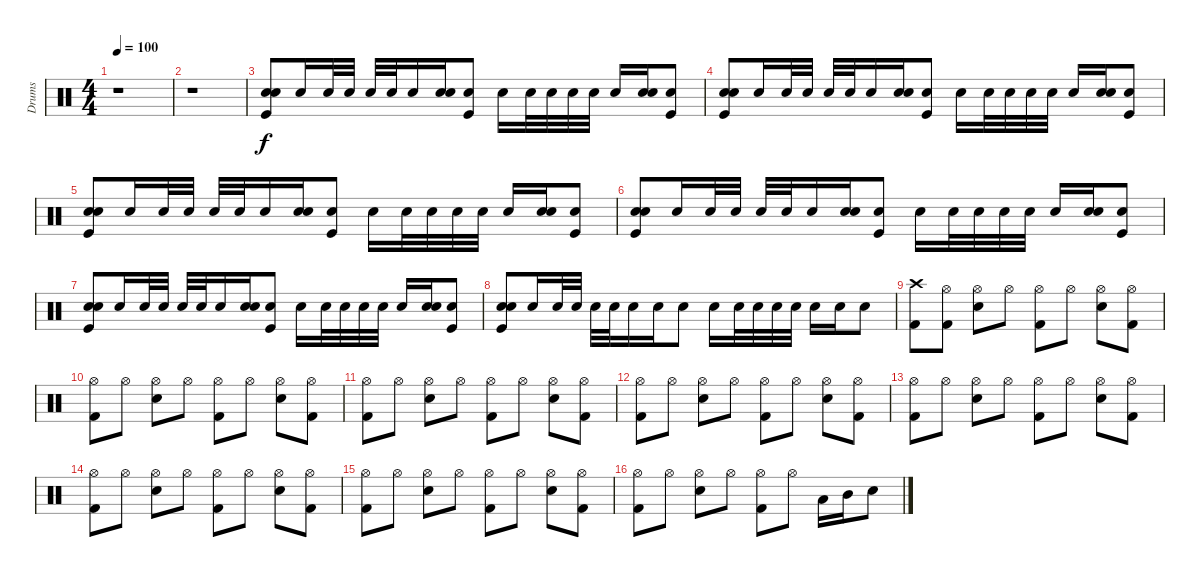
\track ("Drums" "Drums") {instrument percussion}
\staff {score}
\articulation defaults
\ts (4 4)
\tempo 100
\clef neutral
\ks c
r.1{dy f} |
r.1 |
("Electric Snare (hit)" "Electric Snare (hit)" "Kick (hit)").8 "Electric Snare (hit)".16 "Electric Snare (hit)".32 "Electric Snare (hit)".32 "Electric Snare (hit)".32 "Electric Snare (hit)".32 "Electric Snare (hit)".16 ("Electric Snare (hit)" "Electric Snare (hit)").16 ("Electric Snare (hit)" "Kick (hit)").8 "Electric Snare (hit)".16 "Electric Snare (hit)".32 "Electric Snare (hit)".32 "Electric Snare (hit)".32 "Electric Snare (hit)".32 "Electric Snare (hit)".16 ("Electric Snare (hit)" "Electric Snare (hit)").16 ("Electric Snare (hit)" "Kick (hit)").8 |
("Electric Snare (hit)" "Electric Snare (hit)" "Kick (hit)").8 "Electric Snare (hit)".16 "Electric Snare (hit)".32 "Electric Snare (hit)".32 "Electric Snare (hit)".32 "Electric Snare (hit)".32 "Electric Snare (hit)".16 ("Electric Snare (hit)" "Electric Snare (hit)").16 ("Electric Snare (hit)" "Kick (hit)").8 "Electric Snare (hit)".16 "Electric Snare (hit)".32 "Electric Snare (hit)".32 "Electric Snare (hit)".32 "Electric Snare (hit)".32 "Electric Snare (hit)".16 ("Electric Snare (hit)" "Electric Snare (hit)").16 ("Electric Snare (hit)" "Kick (hit)").8 |
("Electric Snare (hit)" "Electric Snare (hit)" "Kick (hit)").8 "Electric Snare (hit)".16 "Electric Snare (hit)".32 "Electric Snare (hit)".32 "Electric Snare (hit)".32 "Electric Snare (hit)".32 "Electric Snare (hit)".16 ("Electric Snare (hit)" "Electric Snare (hit)").16 ("Electric Snare (hit)" "Kick (hit)").8 "Electric Snare (hit)".16 "Electric Snare (hit)".32 "Electric Snare (hit)".32 "Electric Snare (hit)".32 "Electric Snare (hit)".32 "Electric Snare (hit)".16 ("Electric Snare (hit)" "Electric Snare (hit)").16 ("Electric Snare (hit)" "Kick (hit)").8 |
("Electric Snare (hit)" "Electric Snare (hit)" "Kick (hit)").8 "Electric Snare (hit)".16 "Electric Snare (hit)".32 "Electric Snare (hit)".32 "Electric Snare (hit)".32 "Electric Snare (hit)".32 "Electric Snare (hit)".16 ("Electric Snare (hit)" "Electric Snare (hit)").16 ("Electric Snare (hit)" "Kick (hit)").8 "Electric Snare (hit)".16 "Electric Snare (hit)".32 "Electric Snare (hit)".32 "Electric Snare (hit)".32 "Electric Snare (hit)".32 "Electric Snare (hit)".16 ("Electric Snare (hit)" "Electric Snare (hit)").16 ("Electric Snare (hit)" "Kick (hit)").8 |
("Electric Snare (hit)" "Electric Snare (hit)" "Kick (hit)").8 "Electric Snare (hit)".16 "Electric Snare (hit)".32 "Electric Snare (hit)".32 "Electric Snare (hit)".32 "Electric Snare (hit)".32 "Electric Snare (hit)".16 ("Electric Snare (hit)" "Electric Snare (hit)").16 ("Electric Snare (hit)" "Kick (hit)").8 "Electric Snare (hit)".16 "Electric Snare (hit)".32 "Electric Snare (hit)".32 "Electric Snare (hit)".32 "Electric Snare (hit)".32 "Electric Snare (hit)".16 ("Electric Snare (hit)" "Electric Snare (hit)").16 ("Electric Snare (hit)" "Kick (hit)").8 |
("Electric Snare (hit)" "Electric Snare (hit)" "Kick (hit)").8{volume 0} "Electric Snare (hit)".16 "Electric Snare (hit)".32 "Electric Snare (hit)".32 "Electric Snare (hit)".32 "Electric Snare (hit)".32 "Electric Snare (hit)".16 "Electric Snare (hit)".16 "Electric Snare (hit)".8 "Electric Snare (hit)".16 "Electric Snare (hit)".32 "Electric Snare (hit)".32 "Electric Snare (hit)".32 "Electric Snare (hit)".32 "Electric Snare (hit)".16 "Electric Snare (hit)".16 "Electric Snare (hit)".8 |
("Crash high (hit)" "Kick (hit) 2").8{volume 14} ("Hi-Hat (open)" "Kick (hit) 2").8 ("Hi-Hat (open)" "Snare (hit) 2").8 "Hi-Hat (open)".8 ("Hi-Hat (open)" "Kick (hit) 2").8 "Hi-Hat (open)".8 ("Hi-Hat (open)" "Snare (hit) 2").8 ("Hi-Hat (open)" "Kick (hit) 2").8 |
("Hi-Hat (open)" "Kick (hit) 2").8 "Hi-Hat (open)".8 ("Hi-Hat (open)" "Snare (hit) 2").8 "Hi-Hat (open)".8 ("Hi-Hat (open)" "Kick (hit) 2").8 "Hi-Hat (open)".8 ("Hi-Hat (open)" "Snare (hit) 2").8 ("Hi-Hat (open)" "Kick (hit) 2").8 |
("Hi-Hat (open)" "Kick (hit) 2").8 "Hi-Hat (open)".8 ("Hi-Hat (open)" "Snare (hit) 2").8 "Hi-Hat (open)".8 ("Hi-Hat (open)" "Kick (hit) 2").8 "Hi-Hat (open)".8 ("Hi-Hat (open)" "Snare (hit) 2").8 ("Hi-Hat (open)" "Kick (hit) 2").8 |
("Hi-Hat (open)" "Kick (hit) 2").8 "Hi-Hat (open)".8 ("Hi-Hat (open)" "Snare (hit) 2").8 "Hi-Hat (open)".8 ("Hi-Hat (open)" "Kick (hit) 2").8 "Hi-Hat (open)".8 ("Hi-Hat (open)" "Snare (hit) 2").8 ("Hi-Hat (open)" "Kick (hit) 2").8 |
("Hi-Hat (open)" "Kick (hit) 2").8 "Hi-Hat (open)".8 ("Hi-Hat (open)" "Snare (hit) 2").8 "Hi-Hat (open)".8 ("Hi-Hat (open)" "Kick (hit) 2").8 "Hi-Hat (open)".8 ("Hi-Hat (open)" "Snare (hit) 2").8 ("Hi-Hat (open)" "Kick (hit) 2").8 |
("Hi-Hat (open)" "Kick (hit) 2").8 "Hi-Hat (open)".8 ("Hi-Hat (open)" "Snare (hit) 2").8 "Hi-Hat (open)".8 ("Hi-Hat (open)" "Kick (hit) 2").8 "Hi-Hat (open)".8 ("Hi-Hat (open)" "Snare (hit) 2").8 ("Hi-Hat (open)" "Kick (hit) 2").8 |
("Hi-Hat (open)" "Kick (hit) 2").8 "Hi-Hat (open)".8 ("Hi-Hat (open)" "Snare (hit) 2").8 "Hi-Hat (open)".8 ("Hi-Hat (open)" "Kick (hit) 2").8 "Hi-Hat (open)".8 ("Hi-Hat (open)" "Snare (hit) 2").8 ("Hi-Hat (open)" "Kick (hit) 2").8 |
("Hi-Hat (open)" "Kick (hit) 2").8 "Hi-Hat (open)".8 ("Hi-Hat (open)" "Snare (hit) 2").8 "Hi-Hat (open)".8 ("Hi-Hat (open)" "Kick (hit) 2").8 "Hi-Hat (open)".8 "Low Tom (hit)".16 "Mid Tom (hit)".16 "Snare (hit) 2".8
